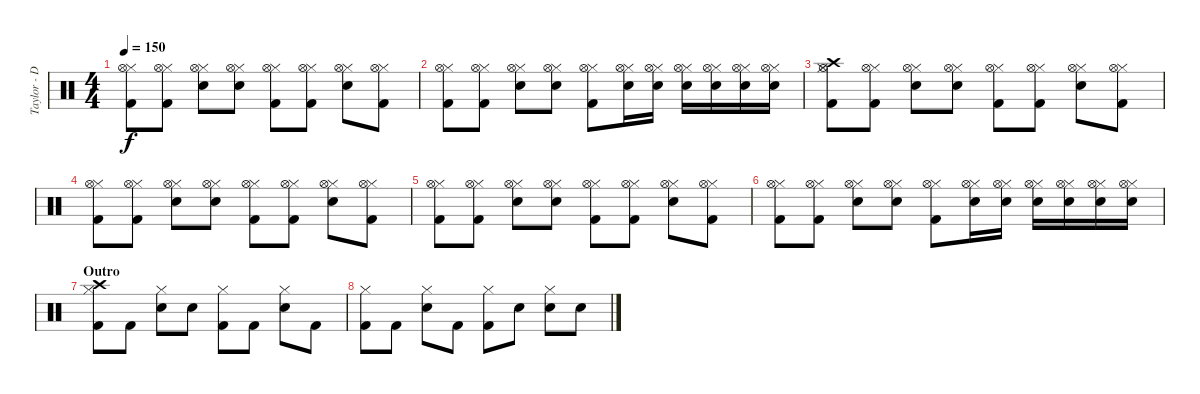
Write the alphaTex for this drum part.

\track ("Taylor - Drums" "Taylor - D") {instrument percussion}
\staff {score}
\articulation defaults
\ts (4 4)
\tempo 150
\clef neutral
\ks c
("Kick (hit) 2" "Hi-Hat (closed)" "Hi-Hat (open)").8{dy f} ("Kick (hit) 2" "Hi-Hat (closed)" "Hi-Hat (open)").8 ("Snare (hit) 2" "Hi-Hat (closed)" "Hi-Hat (open)").8 ("Snare (hit) 2" "Hi-Hat (closed)" "Hi-Hat (open)").8 ("Kick (hit) 2" "Hi-Hat (closed)" "Hi-Hat (open)").8 ("Kick (hit) 2" "Hi-Hat (closed)" "Hi-Hat (open)").8 ("Snare (hit) 2" "Hi-Hat (closed)" "Hi-Hat (open)").8 ("Kick (hit) 2" "Hi-Hat (closed)" "Hi-Hat (open)").8 |
("Kick (hit) 2" "Hi-Hat (closed)" "Hi-Hat (open)").8 ("Kick (hit) 2" "Hi-Hat (closed)" "Hi-Hat (open)").8 ("Snare (hit) 2" "Hi-Hat (closed)" "Hi-Hat (open)").8 ("Snare (hit) 2" "Hi-Hat (closed)" "Hi-Hat (open)").8 ("Kick (hit) 2" "Hi-Hat (closed)" "Hi-Hat (open)").8 ("Snare (hit) 2" "Hi-Hat (closed)" "Hi-Hat (open)").16 ("Snare (hit) 2" "Hi-Hat (closed)" "Hi-Hat (open)").16 ("Snare (hit) 2" "Hi-Hat (closed)" "Hi-Hat (open)").16 ("Snare (hit) 2" "Hi-Hat (closed)" "Hi-Hat (open)").16 ("Snare (hit) 2" "Hi-Hat (closed)" "Hi-Hat (open)").16 ("Snare (hit) 2" "Hi-Hat (closed)" "Hi-Hat (open)").16 |
("Kick (hit) 2" "Hi-Hat (closed)" "Hi-Hat (open)" "Crash high (hit)").8 ("Kick (hit) 2" "Hi-Hat (closed)" "Hi-Hat (open)").8 ("Snare (hit) 2" "Hi-Hat (closed)" "Hi-Hat (open)").8 ("Snare (hit) 2" "Hi-Hat (closed)" "Hi-Hat (open)").8 ("Kick (hit) 2" "Hi-Hat (closed)" "Hi-Hat (open)").8 ("Kick (hit) 2" "Hi-Hat (closed)" "Hi-Hat (open)").8 ("Snare (hit) 2" "Hi-Hat (closed)" "Hi-Hat (open)").8 ("Kick (hit) 2" "Hi-Hat (closed)" "Hi-Hat (open)").8 |
("Kick (hit) 2" "Hi-Hat (closed)" "Hi-Hat (open)").8 ("Kick (hit) 2" "Hi-Hat (closed)" "Hi-Hat (open)").8 ("Snare (hit) 2" "Hi-Hat (closed)" "Hi-Hat (open)").8 ("Snare (hit) 2" "Hi-Hat (closed)" "Hi-Hat (open)").8 ("Kick (hit) 2" "Hi-Hat (closed)" "Hi-Hat (open)").8 ("Kick (hit) 2" "Hi-Hat (closed)" "Hi-Hat (open)").8 ("Snare (hit) 2" "Hi-Hat (closed)" "Hi-Hat (open)").8 ("Kick (hit) 2" "Hi-Hat (closed)" "Hi-Hat (open)").8 |
("Kick (hit) 2" "Hi-Hat (closed)" "Hi-Hat (open)").8 ("Kick (hit) 2" "Hi-Hat (closed)" "Hi-Hat (open)").8 ("Snare (hit) 2" "Hi-Hat (closed)" "Hi-Hat (open)").8 ("Snare (hit) 2" "Hi-Hat (closed)" "Hi-Hat (open)").8 ("Kick (hit) 2" "Hi-Hat (closed)" "Hi-Hat (open)").8 ("Kick (hit) 2" "Hi-Hat (closed)" "Hi-Hat (open)").8 ("Snare (hit) 2" "Hi-Hat (closed)" "Hi-Hat (open)").8 ("Kick (hit) 2" "Hi-Hat (closed)" "Hi-Hat (open)").8 |
("Kick (hit) 2" "Hi-Hat (closed)" "Hi-Hat (open)").8 ("Kick (hit) 2" "Hi-Hat (closed)" "Hi-Hat (open)").8 ("Snare (hit) 2" "Hi-Hat (closed)" "Hi-Hat (open)").8 ("Snare (hit) 2" "Hi-Hat (closed)" "Hi-Hat (open)").8 ("Kick (hit) 2" "Hi-Hat (closed)" "Hi-Hat (open)").8 ("Snare (hit) 2" "Hi-Hat (closed)" "Hi-Hat (open)").16 ("Snare (hit) 2" "Hi-Hat (closed)" "Hi-Hat (open)").16 ("Snare (hit) 2" "Hi-Hat (closed)" "Hi-Hat (open)").16 ("Snare (hit) 2" "Hi-Hat (closed)" "Hi-Hat (open)").16 ("Snare (hit) 2" "Hi-Hat (closed)" "Hi-Hat (open)").16 ("Snare (hit) 2" "Hi-Hat (closed)" "Hi-Hat (open)").16 |
\section ("" "Outro")
("Kick (hit) 2" "Hi-Hat (closed)" "Crash high (hit)").8 "Kick (hit) 2".8 ("Snare (hit) 2" "Hi-Hat (closed)").8 "Snare (hit) 2".8 ("Kick (hit) 2" "Hi-Hat (closed)").8 "Kick (hit) 2".8 ("Snare (hit) 2" "Hi-Hat (closed)").8 "Kick (hit) 2".8 |
("Kick (hit) 2" "Hi-Hat (closed)").8 "Kick (hit) 2".8 ("Snare (hit) 2" "Hi-Hat (closed)").8 "Kick (hit) 2".8 ("Kick (hit) 2" "Hi-Hat (closed)").8 "Snare (hit) 2".8 ("Snare (hit) 2" "Hi-Hat (closed)").8 "Snare (hit) 2".8
